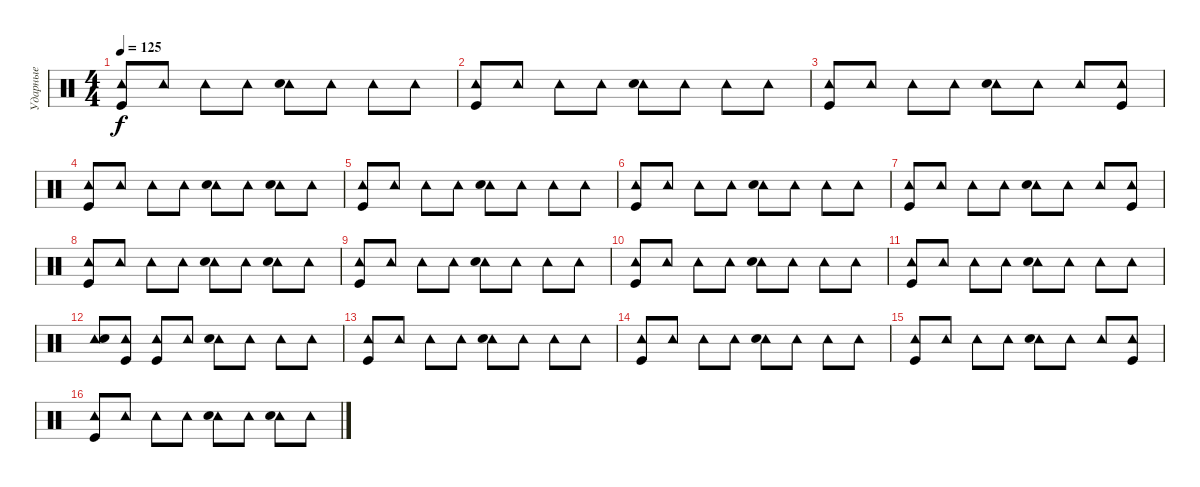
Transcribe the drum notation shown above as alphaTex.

\track ("Ударные" "Ударные") {instrument percussion}
\staff {score}
\articulation defaults
\ts (4 4)
\tempo 125
\clef neutral
\ks c
("Tambourine (hit)" "Kick (hit)").8{dy f} "Tambourine (hit)".8 "Tambourine (hit)".8 "Tambourine (hit)".8 ("Tambourine (hit)" "Snare (hit) 2").8 "Tambourine (hit)".8 "Tambourine (hit)".8 "Tambourine (hit)".8 |
("Tambourine (hit)" "Kick (hit)").8 "Tambourine (hit)".8 "Tambourine (hit)".8 "Tambourine (hit)".8 ("Tambourine (hit)" "Snare (hit) 2").8 "Tambourine (hit)".8 "Tambourine (hit)".8 "Tambourine (hit)".8 |
("Tambourine (hit)" "Kick (hit)").8 "Tambourine (hit)".8 "Tambourine (hit)".8 "Tambourine (hit)".8 ("Tambourine (hit)" "Snare (hit) 2").8 "Tambourine (hit)".8 "Tambourine (hit)".8 ("Tambourine (hit)" "Kick (hit)").8 |
("Tambourine (hit)" "Kick (hit)").8 "Tambourine (hit)".8 "Tambourine (hit)".8 "Tambourine (hit)".8 ("Tambourine (hit)" "Snare (hit) 2").8 "Tambourine (hit)".8 ("Tambourine (hit)" "Snare (hit) 2").8 "Tambourine (hit)".8 |
("Tambourine (hit)" "Kick (hit)").8 "Tambourine (hit)".8 "Tambourine (hit)".8 "Tambourine (hit)".8 ("Tambourine (hit)" "Snare (hit) 2").8 "Tambourine (hit)".8 "Tambourine (hit)".8 "Tambourine (hit)".8 |
("Tambourine (hit)" "Kick (hit)").8 "Tambourine (hit)".8 "Tambourine (hit)".8 "Tambourine (hit)".8 ("Tambourine (hit)" "Snare (hit) 2").8 "Tambourine (hit)".8 "Tambourine (hit)".8 "Tambourine (hit)".8 |
("Tambourine (hit)" "Kick (hit)").8 "Tambourine (hit)".8 "Tambourine (hit)".8 "Tambourine (hit)".8 ("Tambourine (hit)" "Snare (hit) 2").8 "Tambourine (hit)".8 "Tambourine (hit)".8 ("Tambourine (hit)" "Kick (hit)").8 |
("Tambourine (hit)" "Kick (hit)").8 "Tambourine (hit)".8 "Tambourine (hit)".8 "Tambourine (hit)".8 ("Tambourine (hit)" "Snare (hit) 2").8 "Tambourine (hit)".8 ("Tambourine (hit)" "Snare (hit) 2").8 "Tambourine (hit)".8 |
("Tambourine (hit)" "Kick (hit)").8 "Tambourine (hit)".8 "Tambourine (hit)".8 "Tambourine (hit)".8 ("Tambourine (hit)" "Snare (hit) 2").8 "Tambourine (hit)".8 "Tambourine (hit)".8 "Tambourine (hit)".8 |
("Tambourine (hit)" "Kick (hit)").8 "Tambourine (hit)".8 "Tambourine (hit)".8 "Tambourine (hit)".8 ("Tambourine (hit)" "Snare (hit) 2").8 "Tambourine (hit)".8 "Tambourine (hit)".8 "Tambourine (hit)".8 |
("Tambourine (hit)" "Kick (hit)").8 "Tambourine (hit)".8 "Tambourine (hit)".8 "Tambourine (hit)".8 ("Tambourine (hit)" "Snare (hit) 2").8 "Tambourine (hit)".8 "Tambourine (hit)".8 "Tambourine (hit)".8 |
("Tambourine (hit)" "Snare (hit) 2").8 ("Tambourine (hit)" "Kick (hit)").8 ("Tambourine (hit)" "Kick (hit)").8 "Tambourine (hit)".8 ("Tambourine (hit)" "Snare (hit) 2").8 "Tambourine (hit)".8 "Tambourine (hit)".8 "Tambourine (hit)".8 |
("Tambourine (hit)" "Kick (hit)").8 "Tambourine (hit)".8 "Tambourine (hit)".8 "Tambourine (hit)".8 ("Tambourine (hit)" "Snare (hit) 2").8 "Tambourine (hit)".8 "Tambourine (hit)".8 "Tambourine (hit)".8 |
("Tambourine (hit)" "Kick (hit)").8 "Tambourine (hit)".8 "Tambourine (hit)".8 "Tambourine (hit)".8 ("Tambourine (hit)" "Snare (hit) 2").8 "Tambourine (hit)".8 "Tambourine (hit)".8 "Tambourine (hit)".8 |
("Tambourine (hit)" "Kick (hit)").8 "Tambourine (hit)".8 "Tambourine (hit)".8 "Tambourine (hit)".8 ("Tambourine (hit)" "Snare (hit) 2").8 "Tambourine (hit)".8 "Tambourine (hit)".8 ("Tambourine (hit)" "Kick (hit)").8 |
("Tambourine (hit)" "Kick (hit)").8 "Tambourine (hit)".8 "Tambourine (hit)".8 "Tambourine (hit)".8 ("Tambourine (hit)" "Snare (hit) 2").8 "Tambourine (hit)".8 ("Tambourine (hit)" "Snare (hit) 2").8 "Tambourine (hit)".8
